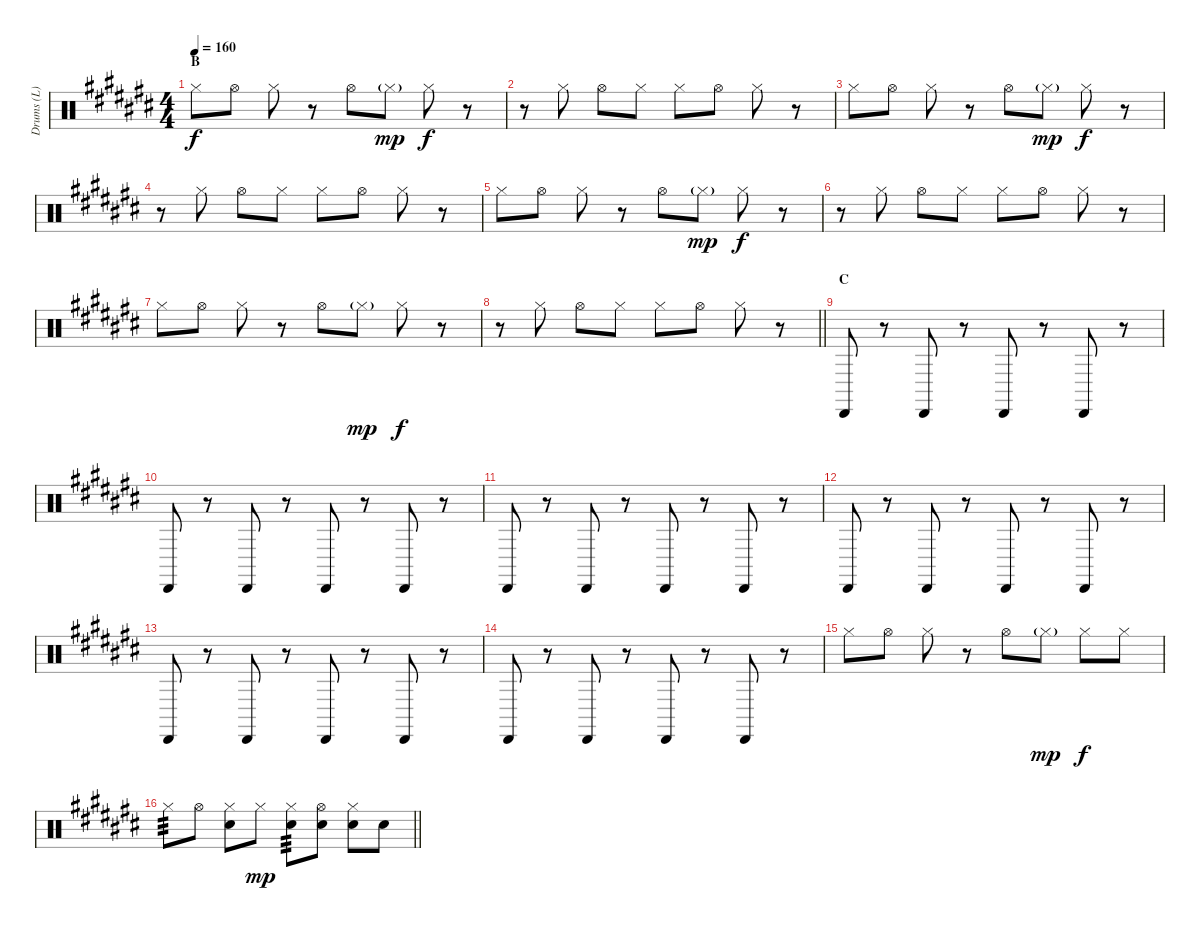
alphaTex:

\track ("Drums (L)" "Drums (L)") {instrument percussion}
\staff {score}
\articulation defaults
\ts (4 4)
\section ("" "B")
\tempo 160
\clef neutral
\ks c# "Hi-Hat (closed)".8{dy f} "Hi-Hat (open)".8 "Hi-Hat (closed)".8
r.8 "Hi-Hat (open)".8 "Hi-Hat (closed)"{g}.8{dy mp} "Hi-Hat (closed)".8{dy f} r.8 |
r.8 "Hi-Hat (closed)".8 "Hi-Hat (open)".8 "Hi-Hat (closed)".8 "Hi-Hat (closed)".8 "Hi-Hat (open)".8 "Hi-Hat (closed)".8 r.8 |
"Hi-Hat (closed)".8 "Hi-Hat (open)".8 "Hi-Hat (closed)".8 r.8 "Hi-Hat (open)".8 "Hi-Hat (closed)"{g}.8{dy mp} "Hi-Hat (closed)".8{dy f} r.8 |
r.8 "Hi-Hat (closed)".8 "Hi-Hat (open)".8 "Hi-Hat (closed)".8 "Hi-Hat (closed)".8 "Hi-Hat (open)".8 "Hi-Hat (closed)".8 r.8 |
"Hi-Hat (closed)".8 "Hi-Hat (open)".8 "Hi-Hat (closed)".8 r.8 "Hi-Hat (open)".8 "Hi-Hat (closed)"{g}.8{dy mp} "Hi-Hat (closed)".8{dy f} r.8 |
r.8 "Hi-Hat (closed)".8 "Hi-Hat (open)".8 "Hi-Hat (closed)".8 "Hi-Hat (closed)".8 "Hi-Hat (open)".8 "Hi-Hat (closed)".8 r.8 |
"Hi-Hat (closed)".8 "Hi-Hat (open)".8 "Hi-Hat (closed)".8 r.8 "Hi-Hat (open)".8 "Hi-Hat (closed)"{g}.8{dy mp} "Hi-Hat (closed)".8{dy f} r.8 |
\barLineRight lightlight
r.8 "Hi-Hat (closed)".8 "Hi-Hat (open)".8 "Hi-Hat (closed)".8 "Hi-Hat (closed)".8 "Hi-Hat (open)".8 "Hi-Hat (closed)".8 r.8 |
\section ("" "C")
"Cabasa (hit)".8 r.8 "Cabasa (hit)".8 r.8 "Cabasa (hit)".8 r.8 "Cabasa (hit)".8 r.8 |
"Cabasa (hit)".8 r.8 "Cabasa (hit)".8 r.8 "Cabasa (hit)".8 r.8 "Cabasa (hit)".8 r.8 |
"Cabasa (hit)".8 r.8 "Cabasa (hit)".8 r.8 "Cabasa (hit)".8 r.8 "Cabasa (hit)".8 r.8 |
"Cabasa (hit)".8 r.8 "Cabasa (hit)".8 r.8 "Cabasa (hit)".8 r.8 "Cabasa (hit)".8 r.8 |
"Cabasa (hit)".8 r.8 "Cabasa (hit)".8 r.8 "Cabasa (hit)".8 r.8 "Cabasa (hit)".8 r.8 |
"Cabasa (hit)".8 r.8 "Cabasa (hit)".8 r.8 "Cabasa (hit)".8 r.8 "Cabasa (hit)".8 r.8 |
"Hi-Hat (closed)".8 "Hi-Hat (open)".8 "Hi-Hat (closed)".8 r.8 "Hi-Hat (open)".8 "Hi-Hat (closed)"{g}.8{dy mp} "Hi-Hat (closed)".8{dy f} "Hi-Hat (closed)".8 |
\barLineRight lightlight "Hi-Hat (closed)".8{tp 3} "Hi-Hat (open)".8
("Hi-Hat (closed)" "Electric Snare (hit)").8 "Hi-Hat (closed)".8{dy mp} ("Hi-Hat (closed)" "Electric Snare (hit)").8{tp 3} ("Hi-Hat (open)" "Electric Snare (hit)").8 ("Hi-Hat (closed)" "Electric Snare (hit)").8 "Electric Snare (hit)".8
